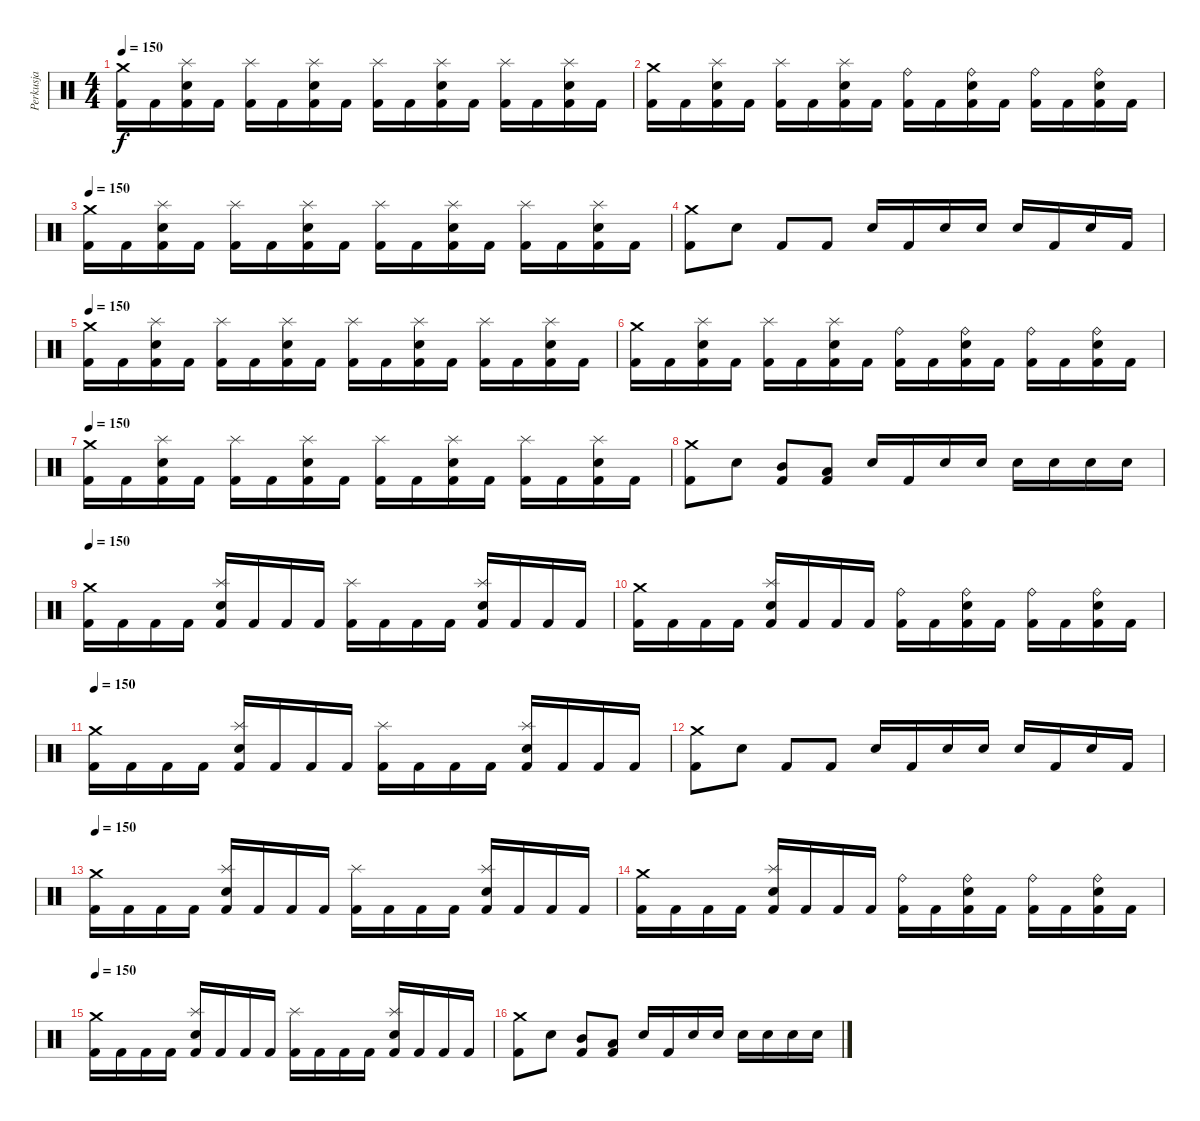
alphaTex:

\track ("Perkusja" "Perkusja") {instrument percussion}
\staff {score}
\articulation defaults
\ts (4 4)
\tempo 150
\clef neutral
\ks c
("Crash medium (hit)" "Kick (hit) 2").16{dy f} "Kick (hit) 2".16 ("Splash (hit)" "Electric Snare (hit)" "Kick (hit) 2").16 "Kick (hit) 2".16 ("Splash (hit)" "Kick (hit) 2").16 "Kick (hit) 2".16 ("Splash (hit)" "Electric Snare (hit)" "Kick (hit) 2").16 "Kick (hit) 2".16 ("Splash (hit)" "Kick (hit) 2").16 "Kick (hit) 2".16 ("Splash (hit)" "Electric Snare (hit)" "Kick (hit) 2").16 "Kick (hit) 2".16 ("Splash (hit)" "Kick (hit) 2").16 "Kick (hit) 2".16 ("Splash (hit)" "Electric Snare (hit)" "Kick (hit) 2").16 "Kick (hit) 2".16 |
("Crash medium (hit)" "Kick (hit) 2").16 "Kick (hit) 2".16 ("Splash (hit)" "Electric Snare (hit)" "Kick (hit) 2").16 "Kick (hit) 2".16 ("Splash (hit)" "Kick (hit) 2").16 "Kick (hit) 2".16 ("Splash (hit)" "Electric Snare (hit)" "Kick (hit) 2").16 "Kick (hit) 2".16 ("Ride (bell)" "Kick (hit) 2").16 "Kick (hit) 2".16 ("Ride (bell)" "Electric Snare (hit)" "Kick (hit) 2").16 "Kick (hit) 2".16 ("Ride (bell)" "Kick (hit) 2").16 "Kick (hit) 2".16 ("Ride (bell)" "Electric Snare (hit)" "Kick (hit) 2").16 "Kick (hit) 2".16 |
\tempo 150
("Crash medium (hit)" "Kick (hit) 2").16 "Kick (hit) 2".16 ("Splash (hit)" "Electric Snare (hit)" "Kick (hit) 2").16 "Kick (hit) 2".16 ("Splash (hit)" "Kick (hit) 2").16 "Kick (hit) 2".16 ("Splash (hit)" "Electric Snare (hit)" "Kick (hit) 2").16 "Kick (hit) 2".16 ("Splash (hit)" "Kick (hit) 2").16 "Kick (hit) 2".16 ("Splash (hit)" "Electric Snare (hit)" "Kick (hit) 2").16 "Kick (hit) 2".16 ("Splash (hit)" "Kick (hit) 2").16 "Kick (hit) 2".16 ("Splash (hit)" "Electric Snare (hit)" "Kick (hit) 2").16 "Kick (hit) 2".16 |
("Crash medium (hit)" "Kick (hit) 2").8 "Electric Snare (hit)".8 "Kick (hit) 2".8 "Kick (hit) 2".8 "Electric Snare (hit)".16 "Kick (hit) 2".16 "Electric Snare (hit)".16 "Electric Snare (hit)".16 "Electric Snare (hit)".16 "Kick (hit) 2".16 "Electric Snare (hit)".16 "Kick (hit) 2".16 |
\tempo 150
("Crash medium (hit)" "Kick (hit) 2").16 "Kick (hit) 2".16 ("Splash (hit)" "Electric Snare (hit)" "Kick (hit) 2").16 "Kick (hit) 2".16 ("Splash (hit)" "Kick (hit) 2").16 "Kick (hit) 2".16 ("Splash (hit)" "Electric Snare (hit)" "Kick (hit) 2").16 "Kick (hit) 2".16 ("Splash (hit)" "Kick (hit) 2").16 "Kick (hit) 2".16 ("Splash (hit)" "Electric Snare (hit)" "Kick (hit) 2").16 "Kick (hit) 2".16 ("Splash (hit)" "Kick (hit) 2").16 "Kick (hit) 2".16 ("Splash (hit)" "Electric Snare (hit)" "Kick (hit) 2").16 "Kick (hit) 2".16 |
("Crash medium (hit)" "Kick (hit) 2").16 "Kick (hit) 2".16 ("Splash (hit)" "Electric Snare (hit)" "Kick (hit) 2").16 "Kick (hit) 2".16 ("Splash (hit)" "Kick (hit) 2").16 "Kick (hit) 2".16 ("Splash (hit)" "Electric Snare (hit)" "Kick (hit) 2").16 "Kick (hit) 2".16 ("Ride (bell)" "Kick (hit) 2").16 "Kick (hit) 2".16 ("Ride (bell)" "Electric Snare (hit)" "Kick (hit) 2").16 "Kick (hit) 2".16 ("Ride (bell)" "Kick (hit) 2").16 "Kick (hit) 2".16 ("Ride (bell)" "Electric Snare (hit)" "Kick (hit) 2").16 "Kick (hit) 2".16 |
\tempo 150
("Crash medium (hit)" "Kick (hit) 2").16 "Kick (hit) 2".16 ("Splash (hit)" "Electric Snare (hit)" "Kick (hit) 2").16 "Kick (hit) 2".16 ("Splash (hit)" "Kick (hit) 2").16 "Kick (hit) 2".16 ("Splash (hit)" "Electric Snare (hit)" "Kick (hit) 2").16 "Kick (hit) 2".16 ("Splash (hit)" "Kick (hit) 2").16 "Kick (hit) 2".16 ("Splash (hit)" "Electric Snare (hit)" "Kick (hit) 2").16 "Kick (hit) 2".16 ("Splash (hit)" "Kick (hit) 2").16 "Kick (hit) 2".16 ("Splash (hit)" "Electric Snare (hit)" "Kick (hit) 2").16 "Kick (hit) 2".16 |
("Crash medium (hit)" "Kick (hit) 2").8 "Electric Snare (hit)".8 ("Mid Tom (hit)" "Kick (hit) 2").8 ("Low Tom (hit)" "Kick (hit) 2").8 "Electric Snare (hit)".16 "Kick (hit) 2".16 "Electric Snare (hit)".16 "Electric Snare (hit)".16 "Electric Snare (hit)".16 "Electric Snare (hit)".16 "Electric Snare (hit)".16 "Electric Snare (hit)".16 |
\tempo 150
("Crash medium (hit)" "Kick (hit) 2").16 "Kick (hit) 2".16 "Kick (hit) 2".16 "Kick (hit) 2".16 ("Splash (hit)" "Electric Snare (hit)" "Kick (hit) 2").16 "Kick (hit) 2".16 "Kick (hit) 2".16 "Kick (hit) 2".16 ("Splash (hit)" "Kick (hit) 2").16 "Kick (hit) 2".16 "Kick (hit) 2".16 "Kick (hit) 2".16 ("Splash (hit)" "Electric Snare (hit)" "Kick (hit) 2").16 "Kick (hit) 2".16 "Kick (hit) 2".16 "Kick (hit) 2".16 |
("Crash medium (hit)" "Kick (hit) 2").16 "Kick (hit) 2".16 "Kick (hit) 2".16 "Kick (hit) 2".16 ("Splash (hit)" "Electric Snare (hit)" "Kick (hit) 2").16 "Kick (hit) 2".16 "Kick (hit) 2".16 "Kick (hit) 2".16 ("Ride (bell)" "Kick (hit) 2").16 "Kick (hit) 2".16 ("Ride (bell)" "Electric Snare (hit)" "Kick (hit) 2").16 "Kick (hit) 2".16 ("Ride (bell)" "Kick (hit) 2").16 "Kick (hit) 2".16 ("Ride (bell)" "Electric Snare (hit)" "Kick (hit) 2").16 "Kick (hit) 2".16 |
\tempo 150
("Crash medium (hit)" "Kick (hit) 2").16 "Kick (hit) 2".16 "Kick (hit) 2".16 "Kick (hit) 2".16 ("Splash (hit)" "Electric Snare (hit)" "Kick (hit) 2").16 "Kick (hit) 2".16 "Kick (hit) 2".16 "Kick (hit) 2".16 ("Splash (hit)" "Kick (hit) 2").16 "Kick (hit) 2".16 "Kick (hit) 2".16 "Kick (hit) 2".16 ("Splash (hit)" "Electric Snare (hit)" "Kick (hit) 2").16 "Kick (hit) 2".16 "Kick (hit) 2".16 "Kick (hit) 2".16 |
("Crash medium (hit)" "Kick (hit) 2").8 "Electric Snare (hit)".8 "Kick (hit) 2".8 "Kick (hit) 2".8 "Electric Snare (hit)".16 "Kick (hit) 2".16 "Electric Snare (hit)".16 "Electric Snare (hit)".16 "Electric Snare (hit)".16 "Kick (hit) 2".16 "Electric Snare (hit)".16 "Kick (hit) 2".16 |
\tempo 150
("Crash medium (hit)" "Kick (hit) 2").16 "Kick (hit) 2".16 "Kick (hit) 2".16 "Kick (hit) 2".16 ("Splash (hit)" "Electric Snare (hit)" "Kick (hit) 2").16 "Kick (hit) 2".16 "Kick (hit) 2".16 "Kick (hit) 2".16 ("Splash (hit)" "Kick (hit) 2").16 "Kick (hit) 2".16 "Kick (hit) 2".16 "Kick (hit) 2".16 ("Splash (hit)" "Electric Snare (hit)" "Kick (hit) 2").16 "Kick (hit) 2".16 "Kick (hit) 2".16 "Kick (hit) 2".16 |
("Crash medium (hit)" "Kick (hit) 2").16 "Kick (hit) 2".16 "Kick (hit) 2".16 "Kick (hit) 2".16 ("Splash (hit)" "Electric Snare (hit)" "Kick (hit) 2").16 "Kick (hit) 2".16 "Kick (hit) 2".16 "Kick (hit) 2".16 ("Ride (bell)" "Kick (hit) 2").16 "Kick (hit) 2".16 ("Ride (bell)" "Electric Snare (hit)" "Kick (hit) 2").16 "Kick (hit) 2".16 ("Ride (bell)" "Kick (hit) 2").16 "Kick (hit) 2".16 ("Ride (bell)" "Electric Snare (hit)" "Kick (hit) 2").16 "Kick (hit) 2".16 |
\tempo 150
("Crash medium (hit)" "Kick (hit) 2").16 "Kick (hit) 2".16 "Kick (hit) 2".16 "Kick (hit) 2".16 ("Splash (hit)" "Electric Snare (hit)" "Kick (hit) 2").16 "Kick (hit) 2".16 "Kick (hit) 2".16 "Kick (hit) 2".16 ("Splash (hit)" "Kick (hit) 2").16 "Kick (hit) 2".16 "Kick (hit) 2".16 "Kick (hit) 2".16 ("Splash (hit)" "Electric Snare (hit)" "Kick (hit) 2").16 "Kick (hit) 2".16 "Kick (hit) 2".16 "Kick (hit) 2".16 |
("Crash medium (hit)" "Kick (hit) 2").8 "Electric Snare (hit)".8 ("Mid Tom (hit)" "Kick (hit) 2").8 ("Low Tom (hit)" "Kick (hit) 2").8 "Electric Snare (hit)".16 "Kick (hit) 2".16 "Electric Snare (hit)".16 "Electric Snare (hit)".16 "Electric Snare (hit)".16 "Electric Snare (hit)".16 "Electric Snare (hit)".16 "Electric Snare (hit)".16
